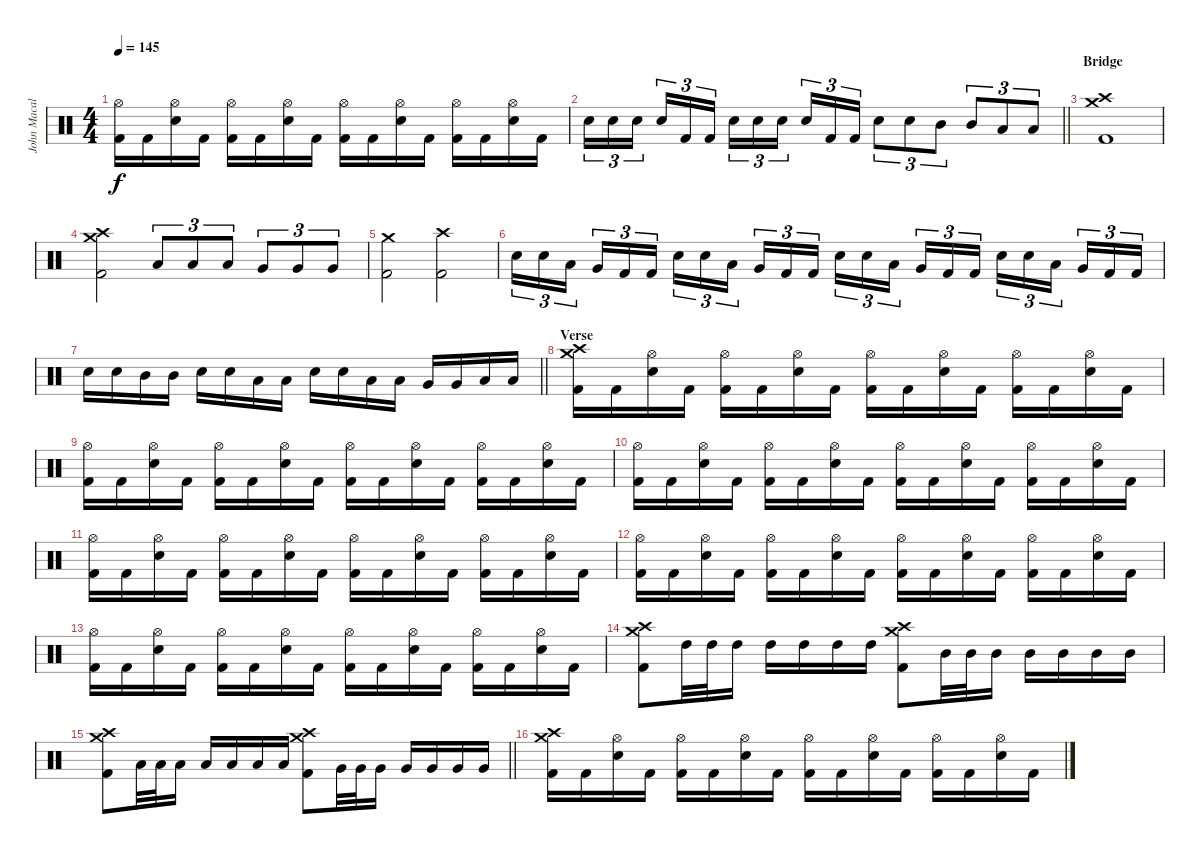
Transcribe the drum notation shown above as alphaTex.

\track ("John Macaluso" "John Macal") {instrument percussion}
\staff {score}
\articulation defaults
\ts (4 4)
\tempo 145
\clef neutral
\ks c
("Hi-Hat (open)" "Kick (hit) 2").16{dy f} "Kick (hit) 2".16 ("Hi-Hat (open)" "Snare (hit) 2").16 "Kick (hit) 2".16 ("Hi-Hat (open)" "Kick (hit) 2").16 "Kick (hit) 2".16 ("Hi-Hat (open)" "Snare (hit) 2").16 "Kick (hit) 2".16 ("Hi-Hat (open)" "Kick (hit) 2").16 "Kick (hit) 2".16 ("Hi-Hat (open)" "Snare (hit) 2").16 "Kick (hit) 2".16 ("Hi-Hat (open)" "Kick (hit) 2").16 "Kick (hit) 2".16 ("Hi-Hat (open)" "Snare (hit) 2").16 "Kick (hit) 2".16 |
\barLineRight lightlight "Snare (hit) 2".16{tu (3 2)} "Snare (hit) 2".16{tu (3 2)} "Snare (hit) 2".16{tu (3 2) beam splitsecondary} "Snare (hit) 2".16{tu (3 2)} "Kick (hit) 2".16{tu (3 2)} "Kick (hit) 2".16{tu (3 2)} "Snare (hit) 2".16{tu (3 2)} "Snare (hit) 2".16{tu (3 2)} "Snare (hit) 2".16{tu (3 2) beam splitsecondary} "Snare (hit) 2".16{tu (3 2)} "Kick (hit) 2".16{tu (3 2)} "Kick (hit) 2".16{tu (3 2)} "Snare (hit) 2".8{tu (3 2)} "Snare (hit) 2".8{tu (3 2)} "Mid Tom (hit)".8{tu (3 2)} "Mid Tom (hit)".8{tu (3 2)} "Low Tom (hit)".8{tu (3 2)} "Low Tom (hit)".8{tu (3 2)}
|
\section ("" "Bridge")
("Crash medium (hit)" "Crash high (hit)" "Kick (hit) 2").1 |
("Crash medium (hit)" "Crash high (hit)" "Kick (hit) 2").2 "Low Tom (hit)".8{tu (3 2)} "Low Tom (hit)".8{tu (3 2)} "Low Tom (hit)".8{tu (3 2)} "Very Low Tom (hit)".8{tu (3 2)} "Very Low Tom (hit)".8{tu (3 2)} "Very Low Tom (hit)".8{tu (3 2)} |
("Crash medium (hit)" "Kick (hit) 2").2 ("Crash high (hit)" "Kick (hit) 2").2 |
"Snare (hit) 2".16{tu (3 2)} "Snare (hit) 2".16{tu (3 2)} "Low Tom (hit)".16{tu (3 2) beam splitsecondary} "Very Low Tom (hit)".16{tu (3 2)} "Kick (hit) 2".16{tu (3 2)} "Kick (hit) 2".16{tu (3 2)} "Snare (hit) 2".16{tu (3 2)} "Snare (hit) 2".16{tu (3 2)} "Low Tom (hit)".16{tu (3 2) beam splitsecondary} "Very Low Tom (hit)".16{tu (3 2)} "Kick (hit) 2".16{tu (3 2)} "Kick (hit) 2".16{tu (3 2)} "Snare (hit) 2".16{tu (3 2)} "Snare (hit) 2".16{tu (3 2)} "Low Tom (hit)".16{tu (3 2) beam splitsecondary} "Very Low Tom (hit)".16{tu (3 2)} "Kick (hit) 2".16{tu (3 2)} "Kick (hit) 2".16{tu (3 2)} "Snare (hit) 2".16{tu (3 2)} "Snare (hit) 2".16{tu (3 2)} "Low Tom (hit)".16{tu (3 2) beam splitsecondary} "Very Low Tom (hit)".16{tu (3 2)} "Kick (hit) 2".16{tu (3 2)} "Kick (hit) 2".16{tu (3 2)} |
\barLineRight lightlight "Snare (hit) 2".16 "Snare (hit) 2".16 "Mid Tom (hit)".16 "Mid Tom (hit)".16 "Snare (hit) 2".16 "Snare (hit) 2".16 "Low Tom (hit)".16 "Low Tom (hit)".16 "Snare (hit) 2".16 "Snare (hit) 2".16 "Low Tom (hit)".16 "Low Tom (hit)".16 "Very Low Tom (hit)".16 "Very Low Tom (hit)".16 "Low Floor Tom (hit)".16 "Low Floor Tom (hit)".16
|
\section ("" "Verse")
("Crash high (hit)" "Crash medium (hit)" "Kick (hit) 2").16 "Kick (hit) 2".16 ("Hi-Hat (open)" "Snare (hit) 2").16 "Kick (hit) 2".16 ("Hi-Hat (open)" "Kick (hit) 2").16 "Kick (hit) 2".16 ("Hi-Hat (open)" "Snare (hit) 2").16 "Kick (hit) 2".16 ("Hi-Hat (open)" "Kick (hit) 2").16 "Kick (hit) 2".16 ("Hi-Hat (open)" "Snare (hit) 2").16 "Kick (hit) 2".16 ("Hi-Hat (open)" "Kick (hit) 2").16 "Kick (hit) 2".16 ("Hi-Hat (open)" "Snare (hit) 2").16 "Kick (hit) 2".16 |
("Hi-Hat (open)" "Kick (hit) 2").16 "Kick (hit) 2".16 ("Hi-Hat (open)" "Snare (hit) 2").16 "Kick (hit) 2".16 ("Hi-Hat (open)" "Kick (hit) 2").16 "Kick (hit) 2".16 ("Hi-Hat (open)" "Snare (hit) 2").16 "Kick (hit) 2".16 ("Hi-Hat (open)" "Kick (hit) 2").16 "Kick (hit) 2".16 ("Hi-Hat (open)" "Snare (hit) 2").16 "Kick (hit) 2".16 ("Hi-Hat (open)" "Kick (hit) 2").16 "Kick (hit) 2".16 ("Hi-Hat (open)" "Snare (hit) 2").16 "Kick (hit) 2".16 |
("Hi-Hat (open)" "Kick (hit) 2").16 "Kick (hit) 2".16 ("Hi-Hat (open)" "Snare (hit) 2").16 "Kick (hit) 2".16 ("Hi-Hat (open)" "Kick (hit) 2").16 "Kick (hit) 2".16 ("Hi-Hat (open)" "Snare (hit) 2").16 "Kick (hit) 2".16 ("Hi-Hat (open)" "Kick (hit) 2").16 "Kick (hit) 2".16 ("Hi-Hat (open)" "Snare (hit) 2").16 "Kick (hit) 2".16 ("Hi-Hat (open)" "Kick (hit) 2").16 "Kick (hit) 2".16 ("Hi-Hat (open)" "Snare (hit) 2").16 "Kick (hit) 2".16 |
("Hi-Hat (open)" "Kick (hit) 2").16 "Kick (hit) 2".16 ("Hi-Hat (open)" "Snare (hit) 2").16 "Kick (hit) 2".16 ("Hi-Hat (open)" "Kick (hit) 2").16 "Kick (hit) 2".16 ("Hi-Hat (open)" "Snare (hit) 2").16 "Kick (hit) 2".16 ("Hi-Hat (open)" "Kick (hit) 2").16 "Kick (hit) 2".16 ("Hi-Hat (open)" "Snare (hit) 2").16 "Kick (hit) 2".16 ("Hi-Hat (open)" "Kick (hit) 2").16 "Kick (hit) 2".16 ("Hi-Hat (open)" "Snare (hit) 2").16 "Kick (hit) 2".16 |
("Hi-Hat (open)" "Kick (hit) 2").16 "Kick (hit) 2".16 ("Hi-Hat (open)" "Snare (hit) 2").16 "Kick (hit) 2".16 ("Hi-Hat (open)" "Kick (hit) 2").16 "Kick (hit) 2".16 ("Hi-Hat (open)" "Snare (hit) 2").16 "Kick (hit) 2".16 ("Hi-Hat (open)" "Kick (hit) 2").16 "Kick (hit) 2".16 ("Hi-Hat (open)" "Snare (hit) 2").16 "Kick (hit) 2".16 ("Hi-Hat (open)" "Kick (hit) 2").16 "Kick (hit) 2".16 ("Hi-Hat (open)" "Snare (hit) 2").16 "Kick (hit) 2".16 |
("Hi-Hat (open)" "Kick (hit) 2").16 "Kick (hit) 2".16 ("Hi-Hat (open)" "Snare (hit) 2").16 "Kick (hit) 2".16 ("Hi-Hat (open)" "Kick (hit) 2").16 "Kick (hit) 2".16 ("Hi-Hat (open)" "Snare (hit) 2").16 "Kick (hit) 2".16 ("Hi-Hat (open)" "Kick (hit) 2").16 "Kick (hit) 2".16 ("Hi-Hat (open)" "Snare (hit) 2").16 "Kick (hit) 2".16 ("Hi-Hat (open)" "Kick (hit) 2").16 "Kick (hit) 2".16 ("Hi-Hat (open)" "Snare (hit) 2").16 "Kick (hit) 2".16 |
("Crash medium (hit)" "Crash high (hit)" "Kick (hit) 2").8 "High Tom (hit)".32 "High Tom (hit)".32 "High Tom (hit)".16 "High Tom (hit)".16 "High Tom (hit)".16 "High Tom (hit)".16 "High Tom (hit)".16 ("Crash medium (hit)" "Crash high (hit)" "Kick (hit) 2").8 "Mid Tom (hit)".32 "Mid Tom (hit)".32 "Mid Tom (hit)".16 "Mid Tom (hit)".16 "Mid Tom (hit)".16 "Mid Tom (hit)".16 "Mid Tom (hit)".16 |
\barLineRight lightlight
("Crash medium (hit)" "Crash high (hit)" "Kick (hit) 2").8 "Low Tom (hit)".32 "Low Tom (hit)".32 "Low Tom (hit)".16 "Low Tom (hit)".16 "Low Tom (hit)".16 "Low Tom (hit)".16 "Low Tom (hit)".16 ("Crash medium (hit)" "Crash high (hit)" "Kick (hit) 2").8 "Very Low Tom (hit)".32 "Very Low Tom (hit)".32 "Very Low Tom (hit)".16 "Very Low Tom (hit)".16 "Very Low Tom (hit)".16 "Very Low Tom (hit)".16 "Very Low Tom (hit)".16 |
("Crash high (hit)" "Crash medium (hit)" "Kick (hit) 2").16 "Kick (hit) 2".16 ("Hi-Hat (open)" "Snare (hit) 2").16 "Kick (hit) 2".16 ("Hi-Hat (open)" "Kick (hit) 2").16 "Kick (hit) 2".16 ("Hi-Hat (open)" "Snare (hit) 2").16 "Kick (hit) 2".16 ("Hi-Hat (open)" "Kick (hit) 2").16 "Kick (hit) 2".16 ("Hi-Hat (open)" "Snare (hit) 2").16 "Kick (hit) 2".16 ("Hi-Hat (open)" "Kick (hit) 2").16 "Kick (hit) 2".16 ("Hi-Hat (open)" "Snare (hit) 2").16 "Kick (hit) 2".16
